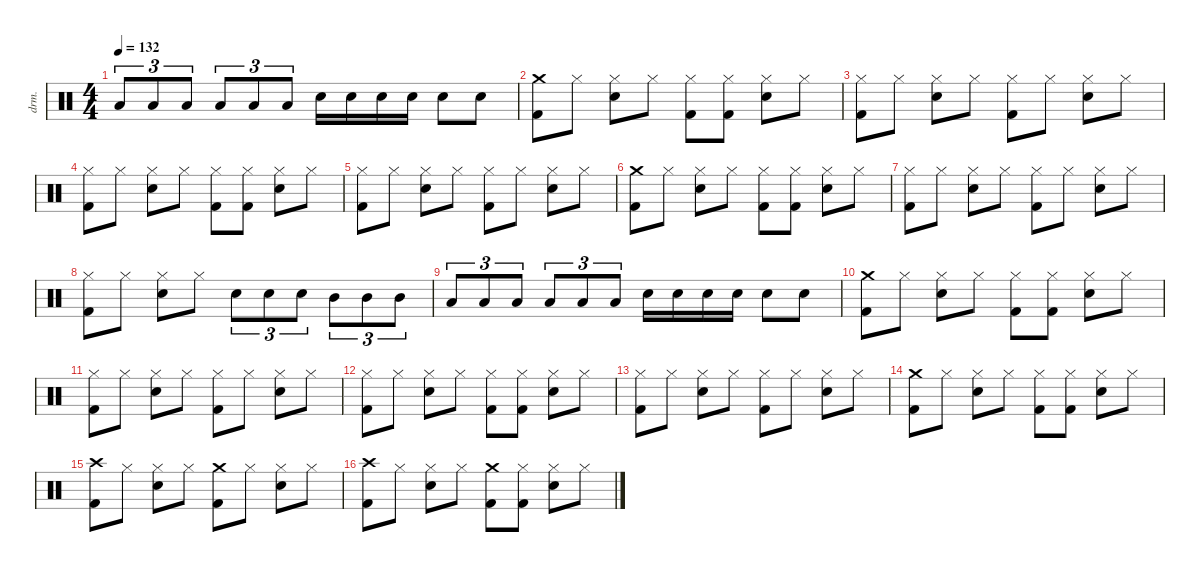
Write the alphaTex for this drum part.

\defaultSystemsLayout 4
\hideDynamics
\bracketExtendMode nobrackets
\track ("敲击乐器" "drm.") {instrument percussion}
\staff {score}
\articulation defaults
\ts (4 4)
\tempo 132
\clef neutral
\ks c "Low Tom (hit)".8{tu (3 2) dy f} "Low Tom (hit)".8{tu (3 2)} "Low Tom (hit)".8{tu (3 2)} "Low Floor Tom (hit)".8{tu (3 2)} "Low Floor Tom (hit)".8{tu (3 2)} "Low Floor Tom (hit)".8{tu (3 2)} "Snare (hit) 2".16 "Snare (hit) 2".16 "Snare (hit) 2".16 "Snare (hit) 2".16 "Snare (hit) 2".8 "Snare (hit) 2".8
|
("Crash medium (hit)" "Kick (hit) 2").8 "Hi-Hat (closed)".8 ("Hi-Hat (closed)" "Snare (hit) 2").8 "Hi-Hat (closed)".8 ("Hi-Hat (closed)" "Kick (hit) 2").8 ("Hi-Hat (closed)" "Kick (hit) 2").8 ("Hi-Hat (closed)" "Snare (hit) 2").8 "Hi-Hat (closed)".8 |
("Hi-Hat (closed)" "Kick (hit) 2").8 "Hi-Hat (closed)".8 ("Hi-Hat (closed)" "Snare (hit) 2").8 "Hi-Hat (closed)".8 ("Hi-Hat (closed)" "Kick (hit) 2").8 "Hi-Hat (closed)".8 ("Hi-Hat (closed)" "Snare (hit) 2").8 "Hi-Hat (closed)".8 |
("Hi-Hat (closed)" "Kick (hit) 2").8 "Hi-Hat (closed)".8 ("Hi-Hat (closed)" "Snare (hit) 2").8 "Hi-Hat (closed)".8 ("Hi-Hat (closed)" "Kick (hit) 2").8 ("Hi-Hat (closed)" "Kick (hit) 2").8 ("Hi-Hat (closed)" "Snare (hit) 2").8 "Hi-Hat (closed)".8 |
("Hi-Hat (closed)" "Kick (hit) 2").8 "Hi-Hat (closed)".8 ("Hi-Hat (closed)" "Snare (hit) 2").8 "Hi-Hat (closed)".8 ("Hi-Hat (closed)" "Kick (hit) 2").8 "Hi-Hat (closed)".8 ("Hi-Hat (closed)" "Snare (hit) 2").8 "Hi-Hat (closed)".8 |
("Crash medium (hit)" "Kick (hit) 2").8 "Hi-Hat (closed)".8 ("Hi-Hat (closed)" "Snare (hit) 2").8 "Hi-Hat (closed)".8 ("Hi-Hat (closed)" "Kick (hit) 2").8 ("Hi-Hat (closed)" "Kick (hit) 2").8 ("Hi-Hat (closed)" "Snare (hit) 2").8 "Hi-Hat (closed)".8 |
("Hi-Hat (closed)" "Kick (hit) 2").8 "Hi-Hat (closed)".8 ("Hi-Hat (closed)" "Snare (hit) 2").8 "Hi-Hat (closed)".8 ("Hi-Hat (closed)" "Kick (hit) 2").8 "Hi-Hat (closed)".8 ("Hi-Hat (closed)" "Snare (hit) 2").8 "Hi-Hat (closed)".8 |
("Hi-Hat (closed)" "Kick (hit) 2").8 "Hi-Hat (closed)".8 ("Hi-Hat (closed)" "Snare (hit) 2").8 "Hi-Hat (closed)".8 "Snare (hit) 2".8{tu (3 2)} "Snare (hit) 2".8{tu (3 2)} "Snare (hit) 2".8{tu (3 2)} "Mid Tom (hit)".8{tu (3 2)} "Mid Tom (hit)".8{tu (3 2)} "Mid Tom (hit)".8{tu (3 2)} |
"Low Tom (hit)".8{tu (3 2)} "Low Tom (hit)".8{tu (3 2)} "Low Tom (hit)".8{tu (3 2)} "Low Floor Tom (hit)".8{tu (3 2)} "Low Floor Tom (hit)".8{tu (3 2)} "Low Floor Tom (hit)".8{tu (3 2)} "Snare (hit) 2".16 "Snare (hit) 2".16 "Snare (hit) 2".16 "Snare (hit) 2".16 "Snare (hit) 2".8 "Snare (hit) 2".8 |
("Crash medium (hit)" "Kick (hit) 2").8 "Hi-Hat (closed)".8 ("Hi-Hat (closed)" "Snare (hit) 2").8 "Hi-Hat (closed)".8 ("Hi-Hat (closed)" "Kick (hit) 2").8 ("Hi-Hat (closed)" "Kick (hit) 2").8 ("Hi-Hat (closed)" "Snare (hit) 2").8 "Hi-Hat (closed)".8 |
("Hi-Hat (closed)" "Kick (hit) 2").8 "Hi-Hat (closed)".8 ("Hi-Hat (closed)" "Snare (hit) 2").8 "Hi-Hat (closed)".8 ("Hi-Hat (closed)" "Kick (hit) 2").8 "Hi-Hat (closed)".8 ("Hi-Hat (closed)" "Snare (hit) 2").8 "Hi-Hat (closed)".8 |
("Hi-Hat (closed)" "Kick (hit) 2").8 "Hi-Hat (closed)".8 ("Hi-Hat (closed)" "Snare (hit) 2").8 "Hi-Hat (closed)".8 ("Hi-Hat (closed)" "Kick (hit) 2").8 ("Hi-Hat (closed)" "Kick (hit) 2").8 ("Hi-Hat (closed)" "Snare (hit) 2").8 "Hi-Hat (closed)".8 |
("Hi-Hat (closed)" "Kick (hit) 2").8 "Hi-Hat (closed)".8 ("Hi-Hat (closed)" "Snare (hit) 2").8 "Hi-Hat (closed)".8 ("Hi-Hat (closed)" "Kick (hit) 2").8 "Hi-Hat (closed)".8 ("Hi-Hat (closed)" "Snare (hit) 2").8 "Hi-Hat (closed)".8 |
("Crash medium (hit)" "Kick (hit) 2").8 "Hi-Hat (closed)".8 ("Hi-Hat (closed)" "Snare (hit) 2").8 "Hi-Hat (closed)".8 ("Hi-Hat (closed)" "Kick (hit) 2").8 ("Hi-Hat (closed)" "Kick (hit) 2").8 ("Hi-Hat (closed)" "Snare (hit) 2").8 "Hi-Hat (closed)".8 |
("Crash high (hit)" "Kick (hit) 2").8 "Hi-Hat (closed)".8 ("Hi-Hat (closed)" "Snare (hit) 2").8 "Hi-Hat (closed)".8 ("Crash medium (hit)" "Kick (hit) 2").8 "Hi-Hat (closed)".8 ("Hi-Hat (closed)" "Snare (hit) 2").8 "Hi-Hat (closed)".8 |
("Crash high (hit)" "Kick (hit) 2").8 "Hi-Hat (closed)".8 ("Hi-Hat (closed)" "Snare (hit) 2").8 "Hi-Hat (closed)".8 ("Crash medium (hit)" "Kick (hit) 2").8 ("Hi-Hat (closed)" "Kick (hit) 2").8 ("Hi-Hat (closed)" "Snare (hit) 2").8 "Hi-Hat (closed)".8
